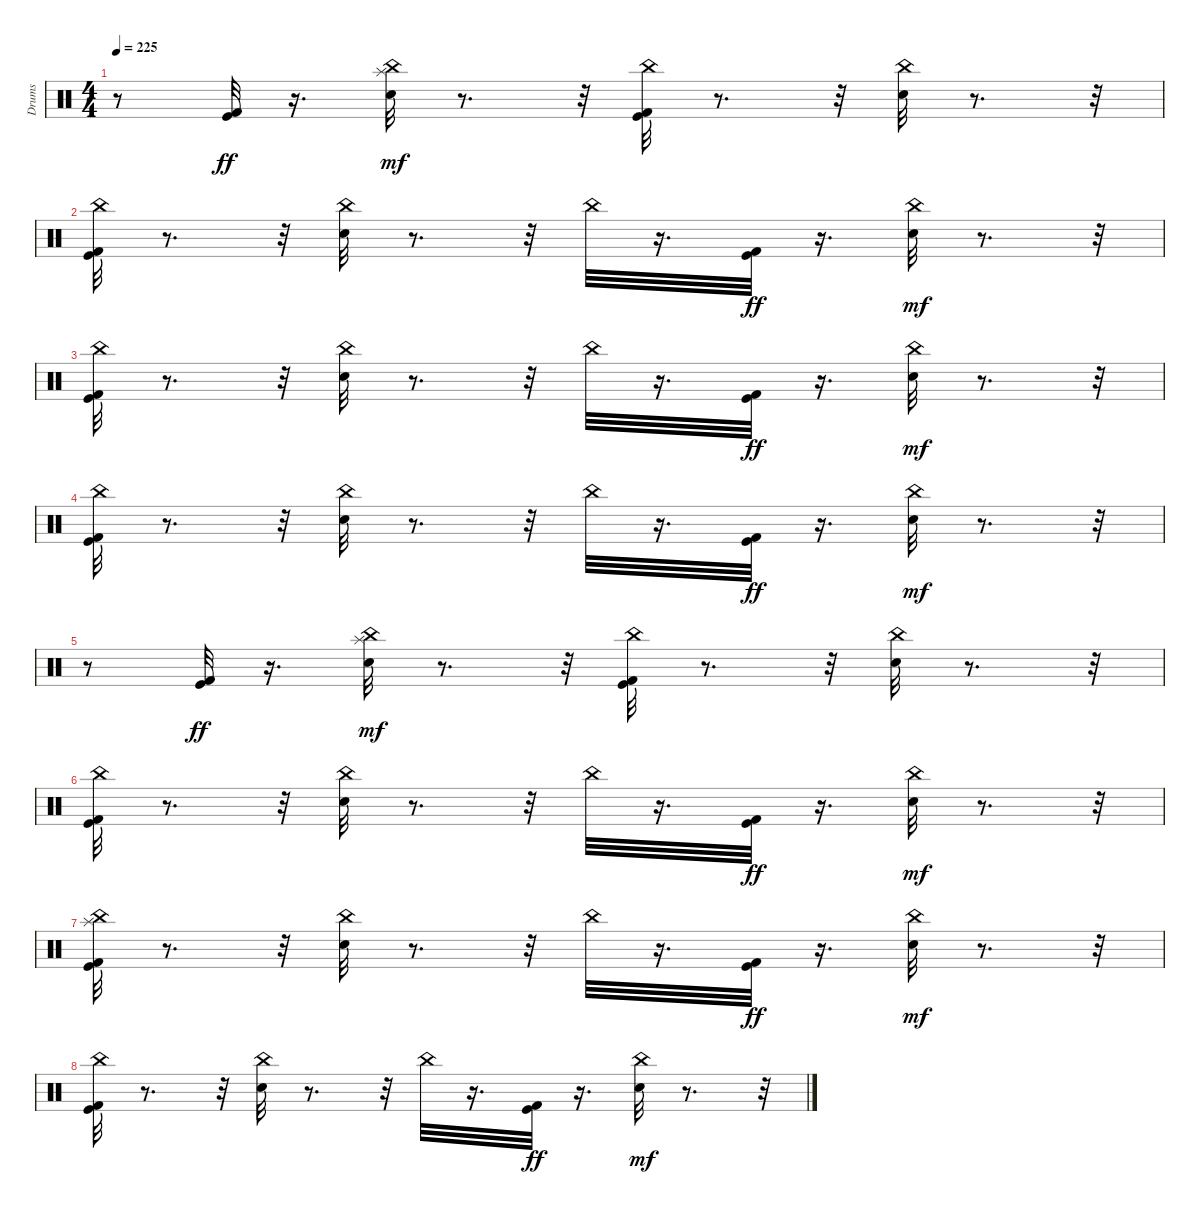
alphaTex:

\track ("Drums" "Drums") {instrument percussion}
\staff {score}
\articulation defaults
\ts (4 4)
\tempo 225
\clef neutral
\ks c
r.8{dy f} ("Kick (hit) 2" "Kick (hit)").32{dy ff} r.16{d} ("Snare (hit) 2" "Splash (hit)" "China (hit)").32{dy mf} r.8{d} r.32 ("Kick (hit) 2" "Kick (hit)" "China (hit)").32 r.8{d} r.32 ("Snare (hit) 2" "China (hit)").32 r.8{d} r.32 |
("Kick (hit) 2" "Kick (hit)" "China (hit)").32 r.8{d} r.32 ("Snare (hit) 2" "China (hit)").32 r.8{d} r.32 "China (hit)".32 r.16{d} ("Kick (hit) 2" "Kick (hit)").32{dy ff} r.16{d} ("Snare (hit) 2" "China (hit)").32{dy mf} r.8{d} r.32 |
("Kick (hit) 2" "Kick (hit)" "China (hit)").32 r.8{d} r.32 ("Snare (hit) 2" "China (hit)").32 r.8{d} r.32 "China (hit)".32 r.16{d} ("Kick (hit) 2" "Kick (hit)").32{dy ff} r.16{d} ("Snare (hit) 2" "China (hit)").32{dy mf} r.8{d} r.32 |
("Kick (hit) 2" "Kick (hit)" "China (hit)").32 r.8{d} r.32 ("Snare (hit) 2" "China (hit)").32 r.8{d} r.32 "China (hit)".32 r.16{d} ("Kick (hit) 2" "Kick (hit)").32{dy ff} r.16{d} ("Snare (hit) 2" "China (hit)").32{dy mf} r.8{d} r.32 |
r.8 ("Kick (hit) 2" "Kick (hit)").32{dy ff} r.16{d} ("Snare (hit) 2" "Splash (hit)" "China (hit)").32{dy mf} r.8{d} r.32 ("Kick (hit) 2" "Kick (hit)" "China (hit)").32 r.8{d} r.32 ("Snare (hit) 2" "China (hit)").32 r.8{d} r.32 |
("Kick (hit) 2" "Kick (hit)" "China (hit)").32 r.8{d} r.32 ("Snare (hit) 2" "China (hit)").32 r.8{d} r.32 "China (hit)".32 r.16{d} ("Kick (hit) 2" "Kick (hit)").32{dy ff} r.16{d} ("Snare (hit) 2" "China (hit)").32{dy mf} r.8{d} r.32 |
("Kick (hit) 2" "Kick (hit)" "China (hit)" "Splash (hit)").32 r.8{d} r.32 ("Snare (hit) 2" "China (hit)").32 r.8{d} r.32 "China (hit)".32 r.16{d} ("Kick (hit) 2" "Kick (hit)").32{dy ff} r.16{d} ("Snare (hit) 2" "China (hit)").32{dy mf} r.8{d} r.32 |
("Kick (hit) 2" "Kick (hit)" "China (hit)").32 r.8{d} r.32 ("Snare (hit) 2" "China (hit)").32 r.8{d} r.32 "China (hit)".32 r.16{d} ("Kick (hit) 2" "Kick (hit)").32{dy ff} r.16{d} ("Snare (hit) 2" "China (hit)").32{dy mf} r.8{d} r.32
